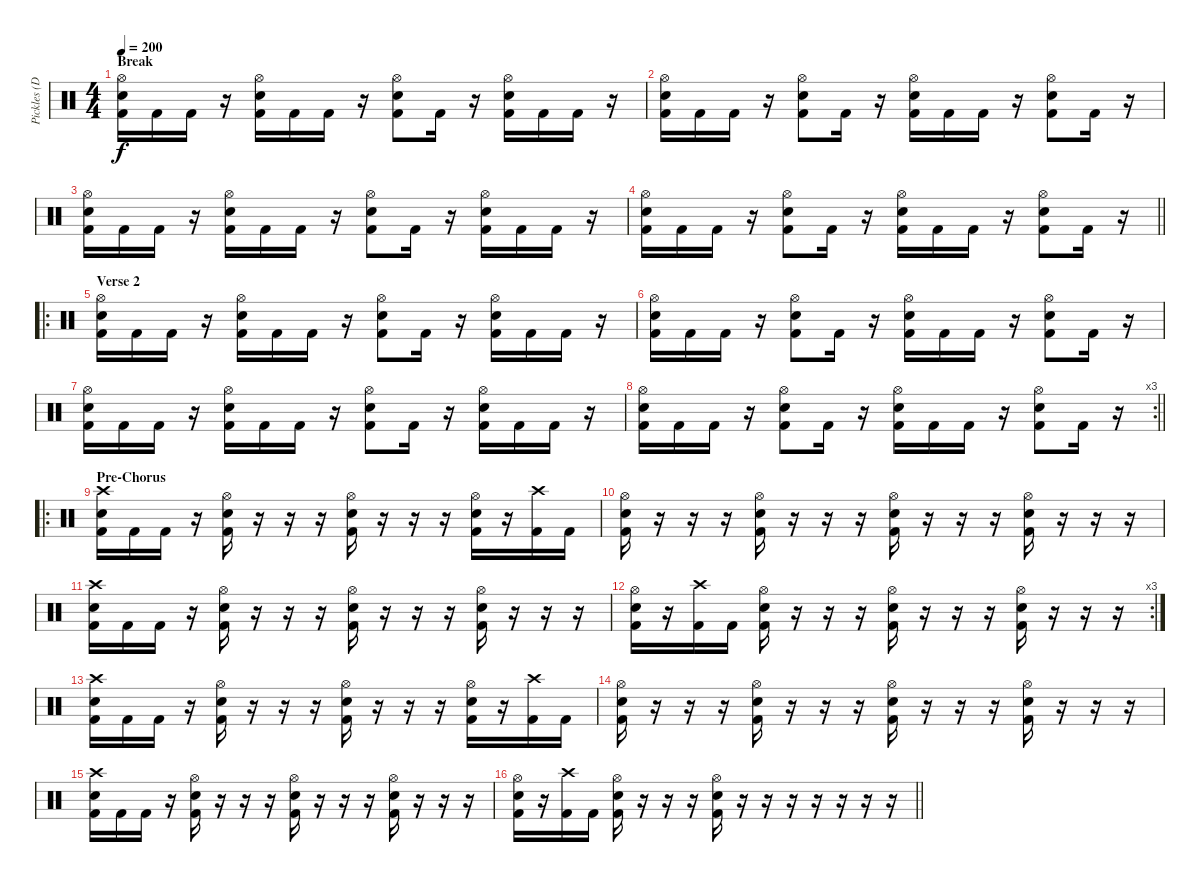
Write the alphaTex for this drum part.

\track ("Pickles (Drums)" "Pickles (D") {instrument percussion}
\staff {score}
\articulation defaults
\ts (4 4)
\section ("" "Break")
\tempo 200
\clef neutral
\ks c
("Hi-Hat (open)" "Electric Snare (hit)" "Kick (hit) 2").16{dy f} "Kick (hit) 2".16 "Kick (hit) 2".16 r.16 ("Hi-Hat (open)" "Electric Snare (hit)" "Kick (hit) 2").16 "Kick (hit) 2".16 "Kick (hit) 2".16 r.16 ("Hi-Hat (open)" "Electric Snare (hit)" "Kick (hit) 2").8 "Kick (hit) 2".16 r.16 ("Hi-Hat (open)" "Electric Snare (hit)" "Kick (hit) 2").16 "Kick (hit) 2".16 "Kick (hit) 2".16 r.16 |
("Hi-Hat (open)" "Electric Snare (hit)" "Kick (hit) 2").16 "Kick (hit) 2".16 "Kick (hit) 2".16 r.16 ("Hi-Hat (open)" "Electric Snare (hit)" "Kick (hit) 2").8 "Kick (hit) 2".16 r.16 ("Hi-Hat (open)" "Electric Snare (hit)" "Kick (hit) 2").16 "Kick (hit) 2".16 "Kick (hit) 2".16 r.16 ("Hi-Hat (open)" "Electric Snare (hit)" "Kick (hit) 2").8 "Kick (hit) 2".16 r.16 |
("Hi-Hat (open)" "Electric Snare (hit)" "Kick (hit) 2").16 "Kick (hit) 2".16 "Kick (hit) 2".16 r.16 ("Hi-Hat (open)" "Electric Snare (hit)" "Kick (hit) 2").16 "Kick (hit) 2".16 "Kick (hit) 2".16 r.16 ("Hi-Hat (open)" "Electric Snare (hit)" "Kick (hit) 2").8 "Kick (hit) 2".16 r.16 ("Hi-Hat (open)" "Electric Snare (hit)" "Kick (hit) 2").16 "Kick (hit) 2".16 "Kick (hit) 2".16 r.16 |
\barLineRight lightlight
("Hi-Hat (open)" "Electric Snare (hit)" "Kick (hit) 2").16 "Kick (hit) 2".16 "Kick (hit) 2".16 r.16 ("Hi-Hat (open)" "Electric Snare (hit)" "Kick (hit) 2").8 "Kick (hit) 2".16 r.16 ("Hi-Hat (open)" "Electric Snare (hit)" "Kick (hit) 2").16 "Kick (hit) 2".16 "Kick (hit) 2".16 r.16 ("Hi-Hat (open)" "Electric Snare (hit)" "Kick (hit) 2").8 "Kick (hit) 2".16 r.16 |
\ro
\section ("" "Verse 2")
("Hi-Hat (open)" "Electric Snare (hit)" "Kick (hit) 2").16 "Kick (hit) 2".16 "Kick (hit) 2".16 r.16 ("Hi-Hat (open)" "Electric Snare (hit)" "Kick (hit) 2").16 "Kick (hit) 2".16 "Kick (hit) 2".16 r.16 ("Hi-Hat (open)" "Electric Snare (hit)" "Kick (hit) 2").8 "Kick (hit) 2".16 r.16 ("Hi-Hat (open)" "Electric Snare (hit)" "Kick (hit) 2").16 "Kick (hit) 2".16 "Kick (hit) 2".16 r.16 |
("Hi-Hat (open)" "Electric Snare (hit)" "Kick (hit) 2").16 "Kick (hit) 2".16 "Kick (hit) 2".16 r.16 ("Hi-Hat (open)" "Electric Snare (hit)" "Kick (hit) 2").8 "Kick (hit) 2".16 r.16 ("Hi-Hat (open)" "Electric Snare (hit)" "Kick (hit) 2").16 "Kick (hit) 2".16 "Kick (hit) 2".16 r.16 ("Hi-Hat (open)" "Electric Snare (hit)" "Kick (hit) 2").8 "Kick (hit) 2".16 r.16 |
("Hi-Hat (open)" "Electric Snare (hit)" "Kick (hit) 2").16 "Kick (hit) 2".16 "Kick (hit) 2".16 r.16 ("Hi-Hat (open)" "Electric Snare (hit)" "Kick (hit) 2").16 "Kick (hit) 2".16 "Kick (hit) 2".16 r.16 ("Hi-Hat (open)" "Electric Snare (hit)" "Kick (hit) 2").8 "Kick (hit) 2".16 r.16 ("Hi-Hat (open)" "Electric Snare (hit)" "Kick (hit) 2").16 "Kick (hit) 2".16 "Kick (hit) 2".16 r.16 |
\rc 3
\barLineRight lightlight
("Hi-Hat (open)" "Electric Snare (hit)" "Kick (hit) 2").16 "Kick (hit) 2".16 "Kick (hit) 2".16 r.16 ("Hi-Hat (open)" "Electric Snare (hit)" "Kick (hit) 2").8 "Kick (hit) 2".16 r.16 ("Hi-Hat (open)" "Electric Snare (hit)" "Kick (hit) 2").16 "Kick (hit) 2".16 "Kick (hit) 2".16 r.16 ("Hi-Hat (open)" "Electric Snare (hit)" "Kick (hit) 2").8 "Kick (hit) 2".16 r.16 |
\ro
\section ("" "Pre-Chorus")
("Crash high (hit)" "Electric Snare (hit)" "Kick (hit) 2").16 "Kick (hit) 2".16 "Kick (hit) 2".16 r.16 ("Hi-Hat (open)" "Electric Snare (hit)" "Kick (hit) 2").16 r.16 r.16 r.16 ("Hi-Hat (open)" "Electric Snare (hit)" "Kick (hit) 2").16 r.16 r.16 r.16 ("Hi-Hat (open)" "Electric Snare (hit)" "Kick (hit) 2").16 r.16 ("Crash high (hit)" "Kick (hit) 2").16 "Kick (hit) 2".16 |
("Hi-Hat (open)" "Electric Snare (hit)" "Kick (hit) 2").16 r.16 r.16 r.16 ("Hi-Hat (open)" "Electric Snare (hit)" "Kick (hit) 2").16 r.16 r.16 r.16 ("Hi-Hat (open)" "Electric Snare (hit)" "Kick (hit) 2").16 r.16 r.16 r.16 ("Hi-Hat (open)" "Electric Snare (hit)" "Kick (hit) 2").16 r.16 r.16 r.16 |
("Crash high (hit)" "Electric Snare (hit)" "Kick (hit) 2").16 "Kick (hit) 2".16 "Kick (hit) 2".16 r.16 ("Hi-Hat (open)" "Electric Snare (hit)" "Kick (hit) 2").16 r.16 r.16 r.16 ("Hi-Hat (open)" "Electric Snare (hit)" "Kick (hit) 2").16 r.16 r.16 r.16 ("Hi-Hat (open)" "Electric Snare (hit)" "Kick (hit) 2").16 r.16 r.16 r.16 |
\rc 3
("Hi-Hat (open)" "Electric Snare (hit)" "Kick (hit) 2").16 r.16 ("Crash high (hit)" "Kick (hit) 2").16 "Kick (hit) 2".16 ("Hi-Hat (open)" "Electric Snare (hit)" "Kick (hit) 2").16 r.16 r.16 r.16 ("Hi-Hat (open)" "Electric Snare (hit)" "Kick (hit) 2").16 r.16 r.16 r.16 ("Hi-Hat (open)" "Electric Snare (hit)" "Kick (hit) 2").16 r.16 r.16 r.16 |
("Crash high (hit)" "Electric Snare (hit)" "Kick (hit) 2").16 "Kick (hit) 2".16 "Kick (hit) 2".16 r.16 ("Hi-Hat (open)" "Electric Snare (hit)" "Kick (hit) 2").16 r.16 r.16 r.16 ("Hi-Hat (open)" "Electric Snare (hit)" "Kick (hit) 2").16 r.16 r.16 r.16 ("Hi-Hat (open)" "Electric Snare (hit)" "Kick (hit) 2").16 r.16 ("Crash high (hit)" "Kick (hit) 2").16 "Kick (hit) 2".16 |
("Hi-Hat (open)" "Electric Snare (hit)" "Kick (hit) 2").16 r.16 r.16 r.16 ("Hi-Hat (open)" "Electric Snare (hit)" "Kick (hit) 2").16 r.16 r.16 r.16 ("Hi-Hat (open)" "Electric Snare (hit)" "Kick (hit) 2").16 r.16 r.16 r.16 ("Hi-Hat (open)" "Electric Snare (hit)" "Kick (hit) 2").16 r.16 r.16 r.16 |
("Crash high (hit)" "Electric Snare (hit)" "Kick (hit) 2").16 "Kick (hit) 2".16 "Kick (hit) 2".16 r.16 ("Hi-Hat (open)" "Electric Snare (hit)" "Kick (hit) 2").16 r.16 r.16 r.16 ("Hi-Hat (open)" "Electric Snare (hit)" "Kick (hit) 2").16 r.16 r.16 r.16 ("Hi-Hat (open)" "Electric Snare (hit)" "Kick (hit) 2").16 r.16 r.16 r.16 |
\barLineRight lightlight
("Hi-Hat (open)" "Electric Snare (hit)" "Kick (hit) 2").16 r.16 ("Crash high (hit)" "Kick (hit) 2").16 "Kick (hit) 2".16 ("Hi-Hat (open)" "Electric Snare (hit)" "Kick (hit) 2").16 r.16 r.16 r.16 ("Hi-Hat (open)" "Electric Snare (hit)" "Kick (hit) 2").16 r.16 r.16 r.16 r.16 r.16 r.16 r.16
